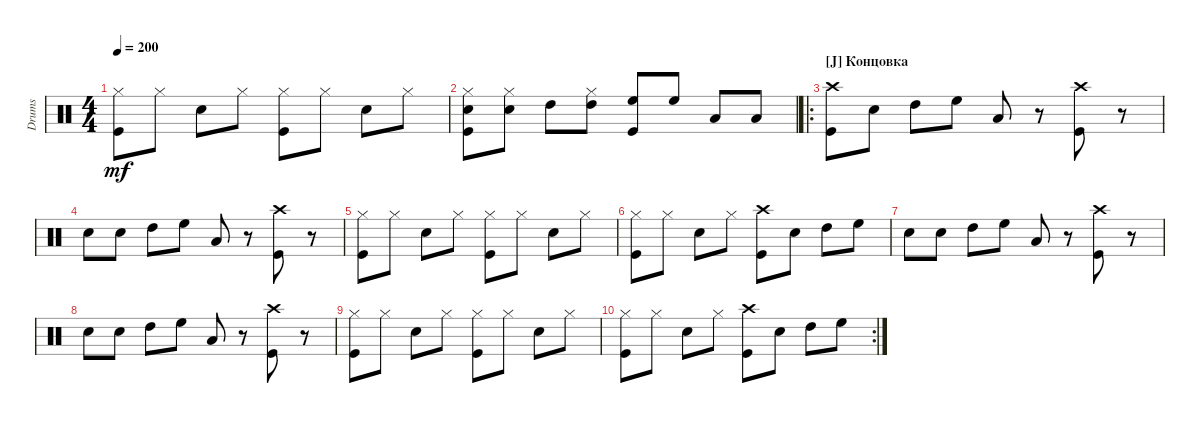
\track ("Drumkit" "Drums") {instrument percussion}
\staff {score}
\articulation defaults
\ts (4 4)
\tempo 200
\clef neutral
\ks c
("Kick (hit)" "Hi-Hat (closed)").8{dy mf} "Hi-Hat (closed)".8 "Snare (hit) 2".8 "Hi-Hat (closed)".8 ("Kick (hit)" "Hi-Hat (closed)").8 "Hi-Hat (closed)".8 "Snare (hit) 2".8 "Hi-Hat (closed)".8 |
("Kick (hit)" "Hi-Hat (closed)" "Snare (hit) 2").8 ("Hi-Hat (closed)" "Snare (hit) 2").8 "High Tom (hit)".8 ("Hi-Hat (closed)" "High Tom (hit)").8 ("Kick (hit)" "High Floor Tom (hit)").8 "High Floor Tom (hit)".8 "Low Tom (hit)".8 "Low Tom (hit)".8 |
\ro
\section ("J" "Концовка")
("Crash high (hit)" "Kick (hit)").8 "Snare (hit) 2".8 "High Tom (hit)".8 "High Floor Tom (hit)".8 "Low Tom (hit)".8 r.8 ("Crash high (hit)" "Kick (hit)").8 r.8 |
"Snare (hit) 2".8 "Snare (hit) 2".8 "High Tom (hit)".8 "High Floor Tom (hit)".8 "Low Tom (hit)".8 r.8 ("Crash high (hit)" "Kick (hit)").8 r.8 |
("Kick (hit)" "Hi-Hat (closed)").8 "Hi-Hat (closed)".8 "Snare (hit) 2".8 "Hi-Hat (closed)".8 ("Kick (hit)" "Hi-Hat (closed)").8 "Hi-Hat (closed)".8 "Snare (hit) 2".8 "Hi-Hat (closed)".8 |
("Kick (hit)" "Hi-Hat (closed)").8 "Hi-Hat (closed)".8 "Snare (hit) 2".8 "Hi-Hat (closed)".8 ("Kick (hit)" "Crash high (hit)").8 "Snare (hit) 2".8 "High Tom (hit)".8 "High Floor Tom (hit)".8 |
"Snare (hit) 2".8 "Snare (hit) 2".8 "High Tom (hit)".8 "High Floor Tom (hit)".8 "Low Tom (hit)".8 r.8 ("Crash high (hit)" "Kick (hit)").8 r.8 |
"Snare (hit) 2".8 "Snare (hit) 2".8 "High Tom (hit)".8 "High Floor Tom (hit)".8 "Low Tom (hit)".8 r.8 ("Crash high (hit)" "Kick (hit)").8 r.8 |
("Kick (hit)" "Hi-Hat (closed)").8 "Hi-Hat (closed)".8 "Snare (hit) 2".8 "Hi-Hat (closed)".8 ("Kick (hit)" "Hi-Hat (closed)").8 "Hi-Hat (closed)".8 "Snare (hit) 2".8 "Hi-Hat (closed)".8 |
\rc 2
("Kick (hit)" "Hi-Hat (closed)").8 "Hi-Hat (closed)".8 "Snare (hit) 2".8 "Hi-Hat (closed)".8 ("Kick (hit)" "Crash high (hit)").8 "Snare (hit) 2".8 "High Tom (hit)".8 "High Floor Tom (hit)".8
